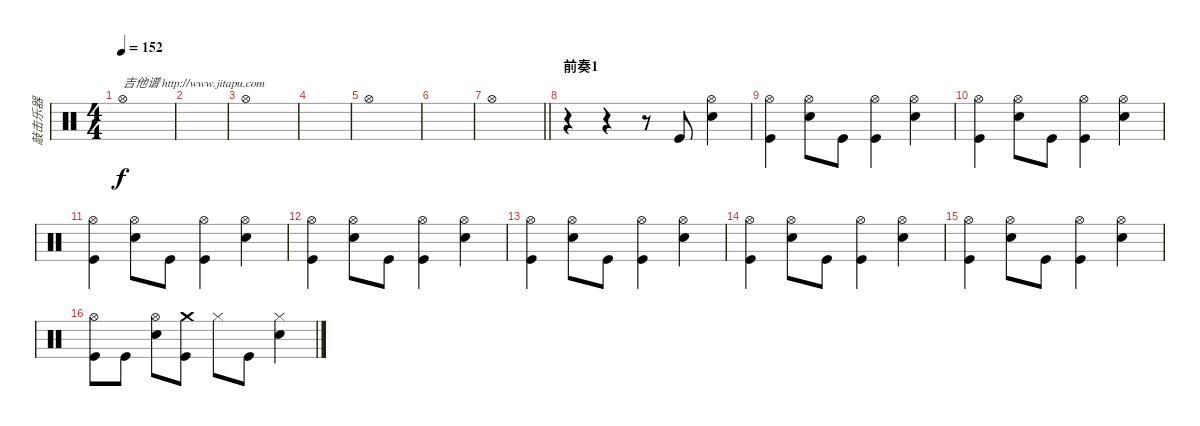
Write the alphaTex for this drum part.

\track ("敲击乐器" "敲击乐器") {instrument percussion}
\staff {score}
\articulation defaults
\ts (4 4)
\tempo 152
\clef neutral
\ks c "Hi-Hat (open)".1{txt "吉他谱 http://www.jitapu.com" dy f}
|
|
"Hi-Hat (open)".1 |
|
"Hi-Hat (open)".1 |
|
\barLineRight lightlight "Hi-Hat (open)".1
|
\section ("" "前奏1")
r.4 r.4 r.8 "Kick (hit)".8 ("Hi-Hat (open)" "Electric Snare (hit)").4 |
("Hi-Hat (open)" "Kick (hit)").4 ("Hi-Hat (open)" "Electric Snare (hit)").8 "Kick (hit)".8 ("Hi-Hat (open)" "Kick (hit)").4 ("Hi-Hat (open)" "Electric Snare (hit)").4 |
("Hi-Hat (open)" "Kick (hit)").4 ("Hi-Hat (open)" "Electric Snare (hit)").8 "Kick (hit)".8 ("Hi-Hat (open)" "Kick (hit)").4 ("Hi-Hat (open)" "Electric Snare (hit)").4 |
("Hi-Hat (open)" "Kick (hit)").4 ("Hi-Hat (open)" "Electric Snare (hit)").8 "Kick (hit)".8 ("Hi-Hat (open)" "Kick (hit)").4 ("Hi-Hat (open)" "Electric Snare (hit)").4 |
("Hi-Hat (open)" "Kick (hit)").4 ("Hi-Hat (open)" "Electric Snare (hit)").8 "Kick (hit)".8 ("Hi-Hat (open)" "Kick (hit)").4 ("Hi-Hat (open)" "Electric Snare (hit)").4 |
("Hi-Hat (open)" "Kick (hit)").4 ("Hi-Hat (open)" "Electric Snare (hit)").8 "Kick (hit)".8 ("Hi-Hat (open)" "Kick (hit)").4 ("Hi-Hat (open)" "Electric Snare (hit)").4 |
("Hi-Hat (open)" "Kick (hit)").4 ("Hi-Hat (open)" "Electric Snare (hit)").8 "Kick (hit)".8 ("Hi-Hat (open)" "Kick (hit)").4 ("Hi-Hat (open)" "Electric Snare (hit)").4 |
("Hi-Hat (open)" "Kick (hit)").4 ("Hi-Hat (open)" "Electric Snare (hit)").8 "Kick (hit)".8 ("Hi-Hat (open)" "Kick (hit)").4 ("Hi-Hat (open)" "Electric Snare (hit)").4 |
("Hi-Hat (open)" "Kick (hit)").8 "Kick (hit)".8 ("Hi-Hat (open)" "Electric Snare (hit)").8 ("Crash medium (hit)" "Kick (hit)").8 "Hi-Hat (closed)".8 "Kick (hit)".8 ("Hi-Hat (closed)" "Snare (hit) 2").4
